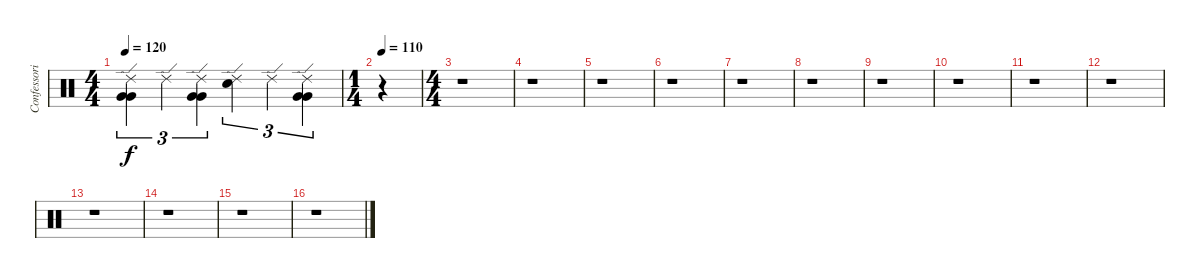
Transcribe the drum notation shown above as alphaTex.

\track ("Confessori" "Confessori") {instrument percussion}
\staff {score}
\articulation defaults
\ts (4 4)
\tempo 120
\clef neutral
\ks c
("Ride (edge) 2" "Very Low Tom (hit)" "Very Low Tom (hit)").4{tu (3 2) dy f} "Ride (edge) 2".4{tu (3 2)} ("Ride (edge) 2" "Very Low Tom (hit)" "Very Low Tom (hit)").4{tu (3 2)} ("Ride (edge) 2" "Electric Snare (hit)").4{tu (3 2)} "Ride (edge) 2".4{tu (3 2)} ("Ride (edge) 2" "Very Low Tom (hit)" "Very Low Tom (hit)").4{tu (3 2)} |
\ts (1 4)
\tempo 110
r.4 |
\ts (4 4)
r.1 |
r.1 |
r.1 |
r.1 |
r.1 |
r.1 |
r.1 |
r.1 |
r.1 |
r.1 |
r.1 |
r.1 |
r.1 |
r.1
